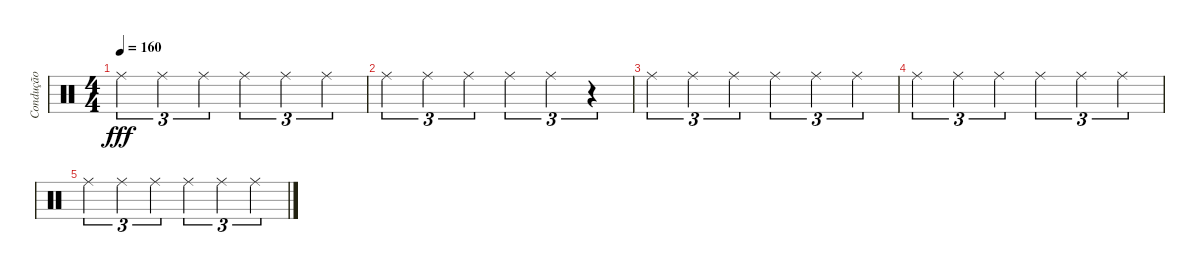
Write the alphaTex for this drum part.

\track ("Condução" "Condução") {instrument percussion}
\staff {score}
\articulation defaults
\ts (4 4)
\tempo 160
\clef neutral
\ks c "Ride (middle)".4{tu (3 2) dy fff} "Ride (middle)".4{tu (3 2)} "Ride (middle)".4{tu (3 2)} "Ride (middle)".4{tu (3 2)} "Ride (middle)".4{tu (3 2)} "Ride (middle)".4{tu (3 2)}
|
"Ride (middle)".4{tu (3 2)} "Ride (middle)".4{tu (3 2)} "Ride (middle)".4{tu (3 2)} "Ride (middle)".4{tu (3 2)} "Ride (middle)".4{tu (3 2)} r.4{tu (3 2)} |
"Ride (middle)".4{tu (3 2)} "Ride (middle)".4{tu (3 2)} "Ride (middle)".4{tu (3 2)} "Ride (middle)".4{tu (3 2)} "Ride (middle)".4{tu (3 2)} "Ride (middle)".4{tu (3 2)} |
"Ride (middle)".4{tu (3 2)} "Ride (middle)".4{tu (3 2)} "Ride (middle)".4{tu (3 2)} "Ride (middle)".4{tu (3 2)} "Ride (middle)".4{tu (3 2)} "Ride (middle)".4{tu (3 2)} |
"Ride (middle)".4{tu (3 2)} "Ride (middle)".4{tu (3 2)} "Ride (middle)".4{tu (3 2)} "Ride (middle)".4{tu (3 2)} "Ride (middle)".4{tu (3 2)} "Ride (middle)".4{tu (3 2)}
